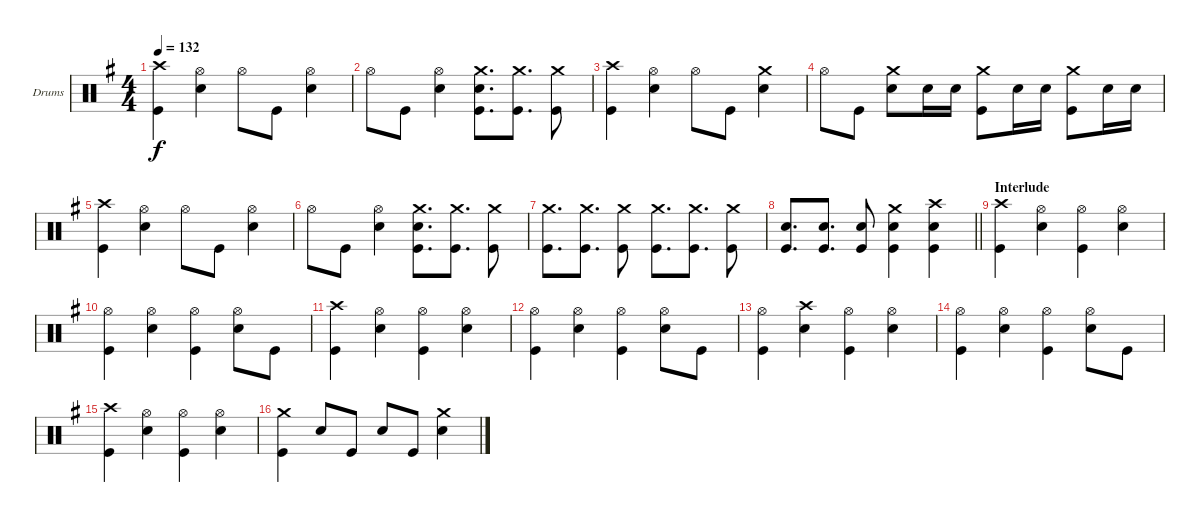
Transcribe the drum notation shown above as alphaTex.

\bracketExtendMode groupsimilarinstruments
\firstSystemTrackNameOrientation horizontal
\otherSystemsTrackNameOrientation horizontal
\track ("Drumkit" "Drums") {instrument percussion}
\staff {score}
\articulation defaults
\ts (4 4)
\tempo 132
\clef neutral
\ks g
("Crash high (hit)" "Kick (hit)").4{dy f} ("Hi-Hat (open)" "Snare (hit) 2").4 "Hi-Hat (open)".8 "Kick (hit)".8 ("Hi-Hat (open)" "Snare (hit) 2").4 |
"Hi-Hat (open)".8 "Kick (hit)".8 ("Hi-Hat (open)" "Snare (hit) 2").4 ("Crash medium (hit)" "Snare (hit) 2" "Kick (hit)").8{d} ("Crash medium (hit)" "Kick (hit)").8{d} ("Crash medium (hit)" "Kick (hit)").8 |
("Crash high (hit)" "Kick (hit)").4 ("Hi-Hat (open)" "Snare (hit) 2").4 "Hi-Hat (open)".8 "Kick (hit)".8 ("Crash medium (hit)" "Snare (hit) 2").4 |
"Hi-Hat (open)".8 "Kick (hit)".8 ("Crash medium (hit)" "Snare (hit) 2").8 "Snare (hit) 2".16 "Snare (hit) 2".16 ("Crash medium (hit)" "Kick (hit)").8 "Snare (hit) 2".16 "Snare (hit) 2".16 ("Crash medium (hit)" "Kick (hit)").8 "Snare (hit) 2".16 "Snare (hit) 2".16 |
("Crash high (hit)" "Kick (hit)").4 ("Hi-Hat (open)" "Snare (hit) 2").4 "Hi-Hat (open)".8 "Kick (hit)".8 ("Hi-Hat (open)" "Snare (hit) 2").4 |
"Hi-Hat (open)".8 "Kick (hit)".8 ("Hi-Hat (open)" "Snare (hit) 2").4 ("Crash medium (hit)" "Snare (hit) 2" "Kick (hit)").8{d} ("Crash medium (hit)" "Kick (hit)").8{d} ("Crash medium (hit)" "Kick (hit)").8 |
("Crash medium (hit)" "Kick (hit)").8{d} ("Crash medium (hit)" "Kick (hit)").8{d} ("Crash medium (hit)" "Kick (hit)").8 ("Crash medium (hit)" "Kick (hit)").8{d} ("Crash medium (hit)" "Kick (hit)").8{d} ("Crash medium (hit)" "Kick (hit)").8 |
\barLineRight lightlight
("Snare (hit) 2" "Kick (hit)").8{d} ("Snare (hit) 2" "Kick (hit)").8{d} ("Snare (hit) 2" "Kick (hit)").8 ("Crash medium (hit)" "Snare (hit) 2" "Kick (hit)").4 ("Crash high (hit)" "Snare (hit) 2" "Kick (hit)").4 |
\section ("" "Interlude")
("Crash high (hit)" "Kick (hit)").4 ("Hi-Hat (open)" "Snare (hit) 2").4 ("Hi-Hat (open)" "Kick (hit)").4 ("Hi-Hat (open)" "Snare (hit) 2").4 |
("Hi-Hat (open)" "Kick (hit)").4 ("Hi-Hat (open)" "Snare (hit) 2").4 ("Hi-Hat (open)" "Kick (hit)").4 ("Hi-Hat (open)" "Snare (hit) 2").8 "Kick (hit)".8 |
("Crash high (hit)" "Kick (hit)").4 ("Hi-Hat (open)" "Snare (hit) 2").4 ("Hi-Hat (open)" "Kick (hit)").4 ("Hi-Hat (open)" "Snare (hit) 2").4 |
("Hi-Hat (open)" "Kick (hit)").4 ("Hi-Hat (open)" "Snare (hit) 2").4 ("Hi-Hat (open)" "Kick (hit)").4 ("Hi-Hat (open)" "Snare (hit) 2").8 "Kick (hit)".8 |
("Hi-Hat (open)" "Kick (hit)").4 ("Crash high (hit)" "Snare (hit) 2").4 ("Hi-Hat (open)" "Kick (hit)").4 ("Hi-Hat (open)" "Snare (hit) 2").4 |
("Hi-Hat (open)" "Kick (hit)").4 ("Hi-Hat (open)" "Snare (hit) 2").4 ("Hi-Hat (open)" "Kick (hit)").4 ("Hi-Hat (open)" "Snare (hit) 2").8 "Kick (hit)".8 |
("Crash high (hit)" "Kick (hit)").4 ("Hi-Hat (open)" "Snare (hit) 2").4 ("Hi-Hat (open)" "Kick (hit)").4 ("Hi-Hat (open)" "Snare (hit) 2").4 |
("Crash medium (hit)" "Kick (hit)").4 "Snare (hit) 2".8 "Kick (hit)".8 "Snare (hit) 2".8 "Kick (hit)".8 ("Crash medium (hit)" "Snare (hit) 2").4
